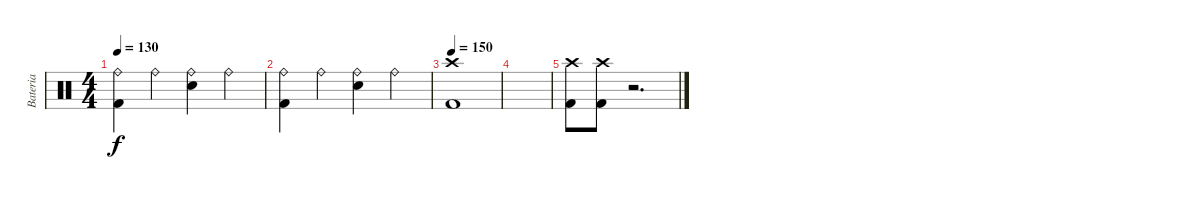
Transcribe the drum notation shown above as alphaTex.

\track ("Bateria" "Bateria") {instrument percussion}
\staff {score}
\articulation defaults
\ts (4 4)
\tempo 130
\clef neutral
\ks c
("Ride (bell)" "Kick (hit) 2").4{dy f} "Ride (bell)".4 ("Ride (bell)" "Snare (hit) 2").4 "Ride (bell)".4 |
("Ride (bell)" "Kick (hit) 2").4 "Ride (bell)".4 ("Ride (bell)" "Snare (hit) 2").4 "Ride (bell)".4 |
\tempo 150
("Crash high (hit)" "Kick (hit) 2").1 |
|
("Crash high (hit)" "Kick (hit) 2").8 ("Crash high (hit)" "Kick (hit) 2").8 r.2{d}
